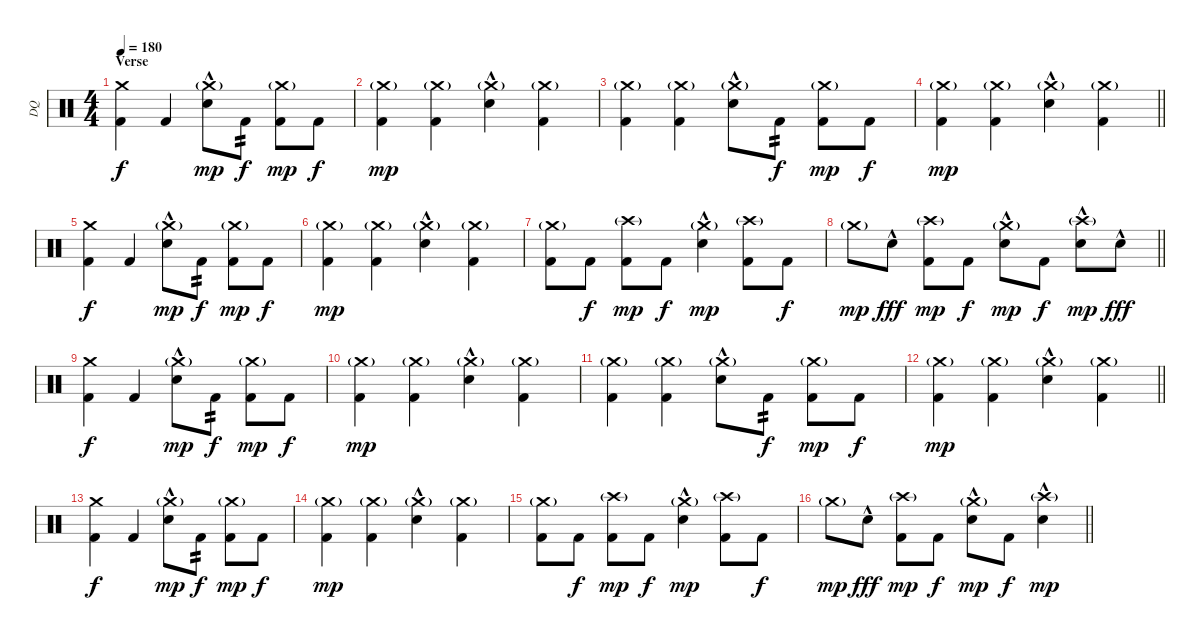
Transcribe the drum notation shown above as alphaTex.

\track ("DQ" "DQ") {instrument percussion}
\staff {score}
\articulation defaults
\ts (4 4)
\section ("" "Verse")
\tempo 180
\clef neutral
\ks c
("Kick (hit) 2" "Crash medium (hit)").4{dy f} "Kick (hit) 2".4 ("Snare (hit) 2"{hac} "Crash medium (hit)"{g}).8{dy mp} "Kick (hit) 2".8{tp 2 dy f} ("Kick (hit) 2" "Crash medium (hit)"{g}).8{dy mp} "Kick (hit) 2".8{dy f} |
("Kick (hit) 2" "Crash medium (hit)"{g}).4{dy mp} ("Kick (hit) 2" "Crash medium (hit)"{g}).4 ("Snare (hit) 2"{hac} "Crash medium (hit)"{g}).4 ("Kick (hit) 2" "Crash medium (hit)"{g}).4 |
("Kick (hit) 2" "Crash medium (hit)"{g}).4 ("Kick (hit) 2" "Crash medium (hit)"{g}).4 ("Snare (hit) 2"{hac} "Crash medium (hit)"{g}).8 "Kick (hit) 2".8{tp 2 dy f} ("Kick (hit) 2" "Crash medium (hit)"{g}).8{dy mp} "Kick (hit) 2".8{dy f} |
\barLineRight lightlight
("Kick (hit) 2" "Crash medium (hit)"{g}).4{dy mp} ("Kick (hit) 2" "Crash medium (hit)"{g}).4 ("Snare (hit) 2"{hac} "Crash medium (hit)"{g}).4 ("Kick (hit) 2" "Crash medium (hit)"{g}).4 |
\section ("" "")
("Kick (hit) 2" "Crash medium (hit)").4{dy f} "Kick (hit) 2".4 ("Snare (hit) 2"{hac} "Crash medium (hit)"{g}).8{dy mp} "Kick (hit) 2".8{tp 2 dy f} ("Kick (hit) 2" "Crash medium (hit)"{g}).8{dy mp} "Kick (hit) 2".8{dy f} |
("Kick (hit) 2" "Crash medium (hit)"{g}).4{dy mp} ("Kick (hit) 2" "Crash medium (hit)"{g}).4 ("Snare (hit) 2"{hac} "Crash medium (hit)"{g}).4 ("Kick (hit) 2" "Crash medium (hit)"{g}).4 |
("Kick (hit) 2" "Crash medium (hit)"{g}).8 "Kick (hit) 2".8{dy f} ("Kick (hit) 2" "Crash high (hit)"{g}).8{dy mp} "Kick (hit) 2".8{dy f} ("Snare (hit) 2"{hac} "Crash medium (hit)"{g}).4{dy mp} ("Kick (hit) 2" "Crash high (hit)"{g}).8 "Kick (hit) 2".8{dy f} |
\barLineRight lightlight "Crash medium (hit)"{g}.8{dy mp} "Snare (hit) 2"{hac}.8{dy fff}
("Kick (hit) 2" "Crash high (hit)"{g}).8{dy mp} "Kick (hit) 2".8{dy f} ("Snare (hit) 2"{hac} "Crash medium (hit)"{g}).8{dy mp} "Kick (hit) 2".8{dy f} ("Snare (hit) 2"{hac} "Crash high (hit)"{g}).8{dy mp} "Snare (hit) 2"{hac}.8{dy fff} |
\section ("" "")
("Kick (hit) 2" "Crash medium (hit)").4{dy f} "Kick (hit) 2".4 ("Snare (hit) 2"{hac} "Crash medium (hit)"{g}).8{dy mp} "Kick (hit) 2".8{tp 2 dy f} ("Kick (hit) 2" "Crash medium (hit)"{g}).8{dy mp} "Kick (hit) 2".8{dy f} |
("Kick (hit) 2" "Crash medium (hit)"{g}).4{dy mp} ("Kick (hit) 2" "Crash medium (hit)"{g}).4 ("Snare (hit) 2"{hac} "Crash medium (hit)"{g}).4 ("Kick (hit) 2" "Crash medium (hit)"{g}).4 |
("Kick (hit) 2" "Crash medium (hit)"{g}).4 ("Kick (hit) 2" "Crash medium (hit)"{g}).4 ("Snare (hit) 2"{hac} "Crash medium (hit)"{g}).8 "Kick (hit) 2".8{tp 2 dy f} ("Kick (hit) 2" "Crash medium (hit)"{g}).8{dy mp} "Kick (hit) 2".8{dy f} |
\barLineRight lightlight
("Kick (hit) 2" "Crash medium (hit)"{g}).4{dy mp} ("Kick (hit) 2" "Crash medium (hit)"{g}).4 ("Snare (hit) 2"{hac} "Crash medium (hit)"{g}).4 ("Kick (hit) 2" "Crash medium (hit)"{g}).4 |
\section ("" "")
("Kick (hit) 2" "Crash medium (hit)").4{dy f} "Kick (hit) 2".4 ("Snare (hit) 2"{hac} "Crash medium (hit)"{g}).8{dy mp} "Kick (hit) 2".8{tp 2 dy f} ("Kick (hit) 2" "Crash medium (hit)"{g}).8{dy mp} "Kick (hit) 2".8{dy f} |
("Kick (hit) 2" "Crash medium (hit)"{g}).4{dy mp} ("Kick (hit) 2" "Crash medium (hit)"{g}).4 ("Snare (hit) 2"{hac} "Crash medium (hit)"{g}).4 ("Kick (hit) 2" "Crash medium (hit)"{g}).4 |
("Kick (hit) 2" "Crash medium (hit)"{g}).8 "Kick (hit) 2".8{dy f} ("Kick (hit) 2" "Crash high (hit)"{g}).8{dy mp} "Kick (hit) 2".8{dy f} ("Snare (hit) 2"{hac} "Crash medium (hit)"{g}).4{dy mp} ("Kick (hit) 2" "Crash high (hit)"{g}).8 "Kick (hit) 2".8{dy f} |
\barLineRight lightlight "Crash medium (hit)"{g}.8{dy mp} "Snare (hit) 2"{hac}.8{dy fff}
("Kick (hit) 2" "Crash high (hit)"{g}).8{dy mp} "Kick (hit) 2".8{dy f} ("Snare (hit) 2"{hac} "Crash medium (hit)"{g}).8{dy mp} "Kick (hit) 2".8{dy f} ("Snare (hit) 2"{hac} "Crash high (hit)"{g}).4{dy mp}
